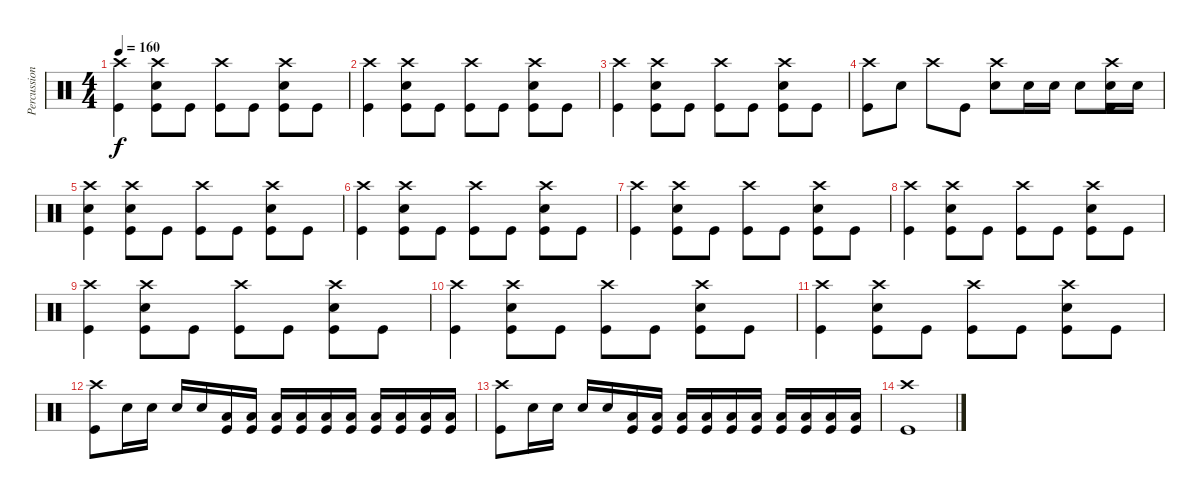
\track ("Percussions" "Percussion") {instrument percussion}
\staff {score}
\articulation defaults
\ts (4 4)
\tempo 160
\clef neutral
\ks c
("Crash high (hit)" "Kick (hit)").4{dy f} ("Crash high (hit)" "Snare (hit) 2" "Kick (hit)").8 "Kick (hit)".8 ("Crash high (hit)" "Kick (hit)").8 "Kick (hit)".8 ("Crash high (hit)" "Snare (hit) 2" "Kick (hit)").8 "Kick (hit)".8 |
("Crash high (hit)" "Kick (hit)").4 ("Crash high (hit)" "Snare (hit) 2" "Kick (hit)").8 "Kick (hit)".8 ("Crash high (hit)" "Kick (hit)").8 "Kick (hit)".8 ("Crash high (hit)" "Snare (hit) 2" "Kick (hit)").8 "Kick (hit)".8 |
("Crash high (hit)" "Kick (hit)").4 ("Crash high (hit)" "Snare (hit) 2" "Kick (hit)").8 "Kick (hit)".8 ("Crash high (hit)" "Kick (hit)").8 "Kick (hit)".8 ("Crash high (hit)" "Snare (hit) 2" "Kick (hit)").8 "Kick (hit)".8 |
("Crash high (hit)" "Kick (hit)").8 "Snare (hit) 2".8 "Crash high (hit)".8 "Kick (hit)".8 ("Crash high (hit)" "Snare (hit) 2").8 "Snare (hit) 2".16 "Snare (hit) 2".16 "Snare (hit) 2".8 ("Crash high (hit)" "Snare (hit) 2" "Kick (hit)").16 "Snare (hit) 2".16 |
("Crash high (hit)" "Snare (hit) 2" "Kick (hit)").4 ("Crash high (hit)" "Snare (hit) 2" "Kick (hit)").8 "Kick (hit)".8 ("Crash high (hit)" "Kick (hit)").8 "Kick (hit)".8 ("Crash high (hit)" "Snare (hit) 2" "Kick (hit)").8 "Kick (hit)".8 |
("Crash high (hit)" "Kick (hit)").4 ("Crash high (hit)" "Snare (hit) 2" "Kick (hit)").8 "Kick (hit)".8 ("Crash high (hit)" "Kick (hit)").8 "Kick (hit)".8 ("Crash high (hit)" "Snare (hit) 2" "Kick (hit)").8 "Kick (hit)".8 |
("Crash high (hit)" "Kick (hit)").4 ("Crash high (hit)" "Snare (hit) 2" "Kick (hit)").8 "Kick (hit)".8 ("Crash high (hit)" "Kick (hit)").8 "Kick (hit)".8 ("Crash high (hit)" "Snare (hit) 2" "Kick (hit)").8 "Kick (hit)".8 |
("Crash high (hit)" "Kick (hit)").4 ("Crash high (hit)" "Snare (hit) 2" "Kick (hit)").8 "Kick (hit)".8 ("Crash high (hit)" "Kick (hit)").8 "Kick (hit)".8 ("Crash high (hit)" "Snare (hit) 2" "Kick (hit)").8 "Kick (hit)".8 |
("Crash high (hit)" "Kick (hit)").4 ("Crash high (hit)" "Snare (hit) 2" "Kick (hit)").8 "Kick (hit)".8 ("Crash high (hit)" "Kick (hit)").8 "Kick (hit)".8 ("Crash high (hit)" "Snare (hit) 2" "Kick (hit)").8 "Kick (hit)".8 |
("Crash high (hit)" "Kick (hit)").4 ("Crash high (hit)" "Snare (hit) 2" "Kick (hit)").8 "Kick (hit)".8 ("Crash high (hit)" "Kick (hit)").8 "Kick (hit)".8 ("Crash high (hit)" "Snare (hit) 2" "Kick (hit)").8 "Kick (hit)".8 |
("Crash high (hit)" "Kick (hit)").4 ("Crash high (hit)" "Snare (hit) 2" "Kick (hit)").8 "Kick (hit)".8 ("Crash high (hit)" "Kick (hit)").8 "Kick (hit)".8 ("Crash high (hit)" "Snare (hit) 2" "Kick (hit)").8 "Kick (hit)".8 |
("Crash high (hit)" "Kick (hit)").8 "Snare (hit) 2".16 "Snare (hit) 2".16 "Snare (hit) 2".16 "Snare (hit) 2".16 ("Low Tom (hit)" "Kick (hit)").16 ("Low Tom (hit)" "Kick (hit)").16 ("Low Tom (hit)" "Kick (hit)").16 ("Low Tom (hit)" "Kick (hit)").16 ("Low Tom (hit)" "Kick (hit)").16 ("Low Tom (hit)" "Kick (hit)").16 ("Low Tom (hit)" "Kick (hit)").16 ("Low Tom (hit)" "Kick (hit)").16 ("Low Tom (hit)" "Kick (hit)").16 ("Low Tom (hit)" "Kick (hit)").16 |
("Crash high (hit)" "Kick (hit)").8 "Snare (hit) 2".16 "Snare (hit) 2".16 "Snare (hit) 2".16 "Snare (hit) 2".16 ("Low Tom (hit)" "Kick (hit)").16 ("Low Tom (hit)" "Kick (hit)").16 ("Low Tom (hit)" "Kick (hit)").16 ("Low Tom (hit)" "Kick (hit)").16 ("Low Tom (hit)" "Kick (hit)").16 ("Low Tom (hit)" "Kick (hit)").16 ("Low Tom (hit)" "Kick (hit)").16 ("Low Tom (hit)" "Kick (hit)").16 ("Low Tom (hit)" "Kick (hit)").16 ("Low Tom (hit)" "Kick (hit)").16 |
("Crash high (hit)" "Kick (hit)").1
